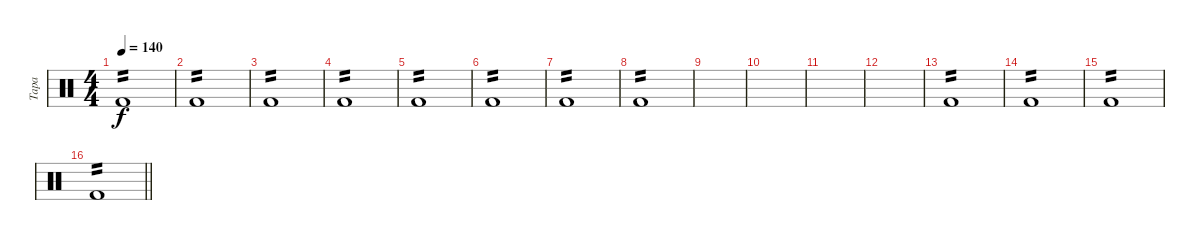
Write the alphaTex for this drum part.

\track ("Tapa" "Tapa") {instrument percussion}
\staff {score}
\articulation defaults
\ts (4 4)
\tempo 140
\clef neutral
\ks c "Kick (hit) 2".1{tp 2 dy f}
|
"Kick (hit) 2".1{tp 2} |
"Kick (hit) 2".1{tp 2} |
"Kick (hit) 2".1{tp 2} |
"Kick (hit) 2".1{tp 2} |
"Kick (hit) 2".1{tp 2} |
"Kick (hit) 2".1{tp 2} |
"Kick (hit) 2".1{tp 2} |
|
|
|
|
"Kick (hit) 2".1{tp 2} |
"Kick (hit) 2".1{tp 2} |
"Kick (hit) 2".1{tp 2} |
\barLineRight lightlight "Kick (hit) 2".1{tp 2}
